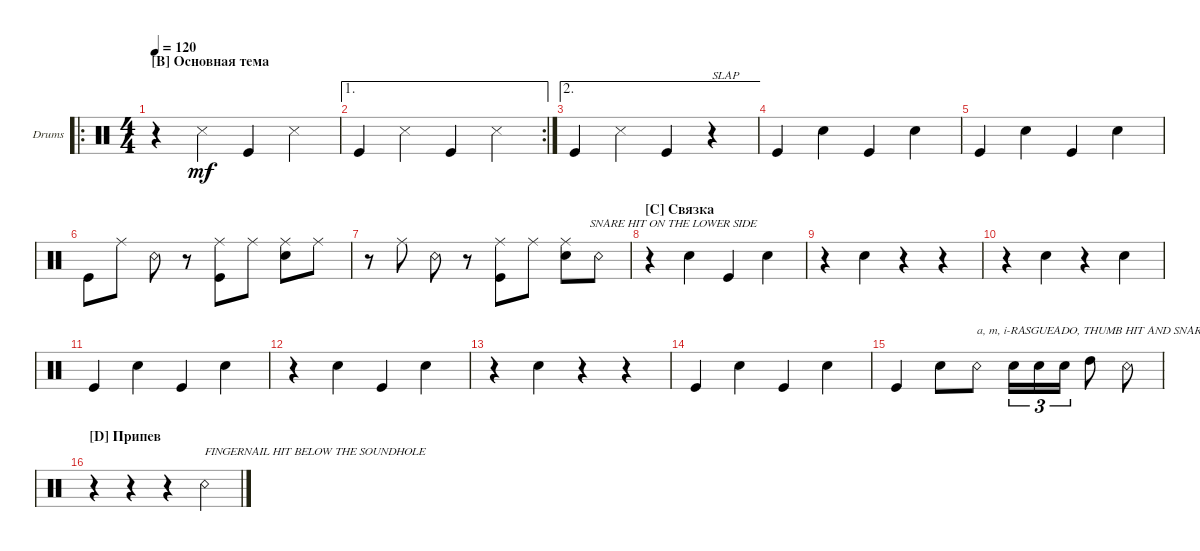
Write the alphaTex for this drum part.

\defaultSystemsLayout 4
\bracketExtendMode groupsimilarinstruments
\firstSystemTrackNameOrientation horizontal
\otherSystemsTrackNameOrientation horizontal
\track ("Drumkit" "Drums") {instrument percussion}
\staff {score}
\articulation defaults
\ro
\ts (4 4)
\section ("B" "Основная тема")
\tempo 120
\clef neutral
\ks c
r.4{dy mf} "Snare (side stick) 3".4 "Kick (hit)".4 "Snare (side stick) 3".4 |
\ae 1
\rc 2 "Kick (hit)".4 "Snare (side stick) 3".4 "Kick (hit)".4 "Snare (side stick) 3".4
|
\ae 2 "Kick (hit)".4 "Snare (side stick) 3".4 "Kick (hit)".4
r.4{txt "SLAP"} |
"Kick (hit)".4 "Snare (hit) 2".4 "Kick (hit)".4 "Snare (hit) 2".4 |
"Kick (hit)".4 "Snare (hit) 2".4 "Kick (hit)".4 "Snare (hit) 2".4 |
"Kick (hit)".8 "Ride (middle)".8 "Snare (rim shot)".8 r.8 ("Kick (hit)" "Ride (middle)").8 "Ride (middle)".8 ("Snare (hit) 2" "Ride (middle)").8 "Ride (middle)".8 |
r.8 "Ride (middle)".8 "Snare (rim shot)".8 r.8 ("Kick (hit)" "Ride (middle)").8 "Ride (middle)".8 ("Snare (hit) 2" "Ride (middle)").8{txt "        SNARE HIT ON THE LOWER SIDE"} "Snare (rim shot)".8 |
\section ("C" "Связка")
r.4 "Snare (hit) 2".4 "Kick (hit)".4 "Snare (hit) 2".4 |
r.4 "Snare (hit) 2".4 r.4 r.4 |
r.4 "Snare (hit) 2".4 r.4 "Snare (hit) 2".4 |
"Kick (hit)".4 "Snare (hit) 2".4 "Kick (hit)".4 "Snare (hit) 2".4 |
r.4 "Snare (hit) 2".4 "Kick (hit)".4 "Snare (hit) 2".4 |
r.4 "Snare (hit) 2".4 r.4 r.4 |
"Kick (hit)".4 "Snare (hit) 2".4 "Kick (hit)".4 "Snare (hit) 2".4 |
"Kick (hit)".4 "Snare (hit) 2".8 "Snare (rim shot)".8{txt "a, m, i-RASGUEADO, THUMB HIT AND SNARE NEAR THE MOUNTING OF THE NECK (VIDEO!)"} "Snare (hit) 2".16{tu (3 2)} "Snare (hit) 2".16{tu (3 2)} "Snare (hit) 2".16{tu (3 2)} "High Tom (hit)".8 "Snare (rim shot)".8 |
\section ("D" "Припев")
r.4 r.4 r.4 "Snare (rim shot)".4{txt "FINGERNAIL HIT BELOW THE SOUNDHOLE"}
